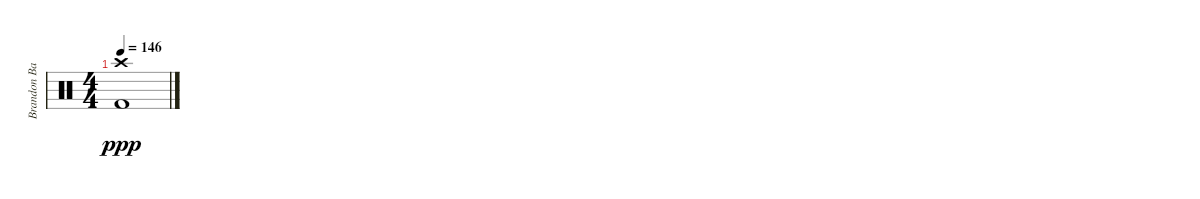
\track ("Brandon Barnes - Drums" "Brandon Ba") {instrument percussion}
\staff {score}
\articulation defaults
\ts (4 4)
\tempo 146
\clef neutral
\ks c
("Crash high (hit)" "Kick (hit) 2").1{dy ppp}
